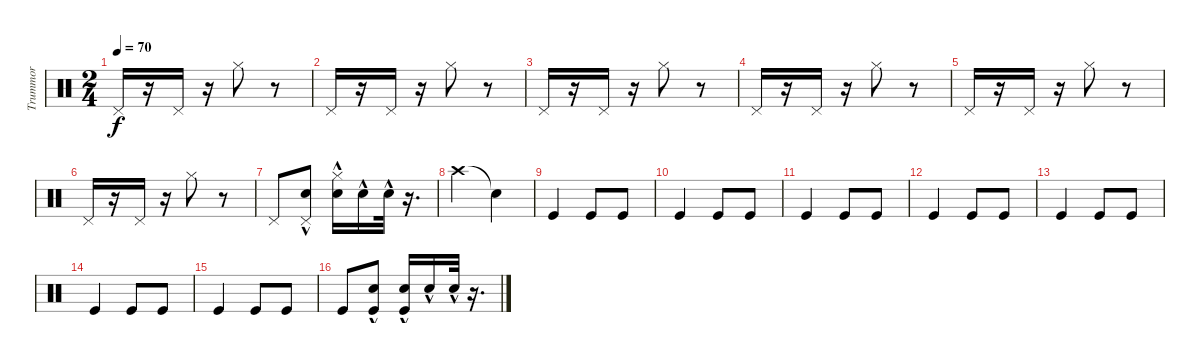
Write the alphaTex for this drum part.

\track ("Trummor" "Trummor") {instrument percussion}
\staff {score}
\articulation defaults
\ts (2 4)
\tempo 70
\clef neutral
\ks c "Pedal Hi-Hat (hit)".16{dy f}
r.16 "Pedal Hi-Hat (hit)".16 r.16 "Hi-Hat (closed)".8 r.8 |
"Pedal Hi-Hat (hit)".16 r.16 "Pedal Hi-Hat (hit)".16 r.16 "Hi-Hat (closed)".8 r.8 |
"Pedal Hi-Hat (hit)".16 r.16 "Pedal Hi-Hat (hit)".16 r.16 "Hi-Hat (closed)".8 r.8 |
"Pedal Hi-Hat (hit)".16 r.16 "Pedal Hi-Hat (hit)".16 r.16 "Hi-Hat (closed)".8 r.8 |
"Pedal Hi-Hat (hit)".16 r.16 "Pedal Hi-Hat (hit)".16 r.16 "Hi-Hat (closed)".8 r.8 |
"Pedal Hi-Hat (hit)".16 r.16 "Pedal Hi-Hat (hit)".16 r.16 "Hi-Hat (closed)".8 r.8 |
"Pedal Hi-Hat (hit)".8 ("Pedal Hi-Hat (hit)" "Snare (hit) 2"{hac}).8 ("Hi-Hat (closed)" "Snare (hit) 2"{hac}).16 "Snare (hit) 2"{hac}.16 "Snare (hit) 2"{hac}.32 r.16{d} |
"Crash high (hit)".4 "Snare (hit)"{t}.4 |
"Kick (hit)".4{volume 8} "Kick (hit)".8 "Kick (hit)".8 |
"Kick (hit)".4 "Kick (hit)".8 "Kick (hit)".8 |
"Kick (hit)".4 "Kick (hit)".8 "Kick (hit)".8 |
"Kick (hit)".4 "Kick (hit)".8 "Kick (hit)".8 |
"Kick (hit)".4 "Kick (hit)".8 "Kick (hit)".8 |
"Kick (hit)".4 "Kick (hit)".8 "Kick (hit)".8 |
"Kick (hit)".4 "Kick (hit)".8 "Kick (hit)".8 |
"Kick (hit)".8 ("Kick (hit)" "Snare (hit) 2"{hac}).8 ("Kick (hit)" "Snare (hit) 2"{hac}).16 "Snare (hit) 2"{hac}.16 "Snare (hit) 2"{hac}.32 r.16{d}
